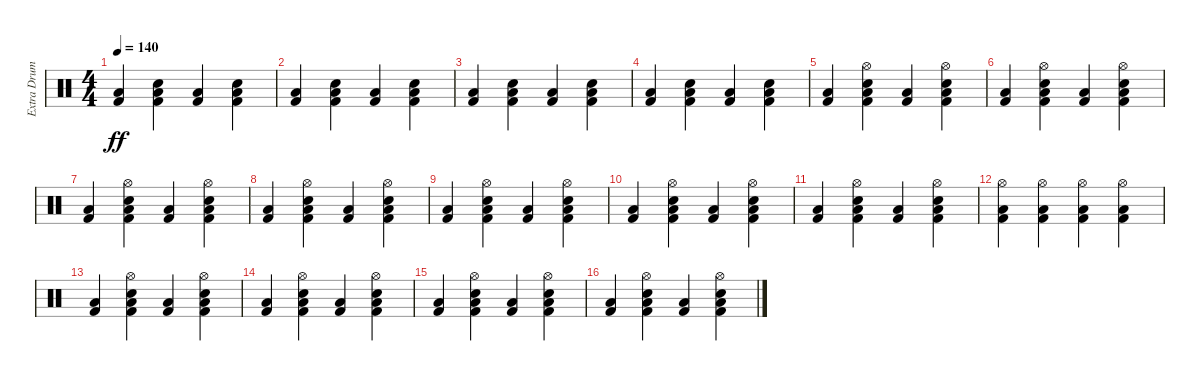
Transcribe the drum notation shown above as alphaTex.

\track ("Extra Drums" "Extra Drum") {instrument percussion}
\staff {score}
\articulation defaults
\ts (4 4)
\tempo 140
\clef neutral
\ks c
("Low Floor Tom (hit)" "Kick (hit) 2").4{dy ff} ("Electric Snare (hit)" "Low Floor Tom (hit)" "Kick (hit) 2").4 ("Low Floor Tom (hit)" "Kick (hit) 2").4 ("Electric Snare (hit)" "Low Floor Tom (hit)" "Kick (hit) 2").4 |
("Low Floor Tom (hit)" "Kick (hit) 2").4 ("Electric Snare (hit)" "Low Floor Tom (hit)" "Kick (hit) 2").4 ("Low Floor Tom (hit)" "Kick (hit) 2").4 ("Electric Snare (hit)" "Low Floor Tom (hit)" "Kick (hit) 2").4 |
("Low Floor Tom (hit)" "Kick (hit) 2").4 ("Electric Snare (hit)" "Low Floor Tom (hit)" "Kick (hit) 2").4 ("Low Floor Tom (hit)" "Kick (hit) 2").4 ("Electric Snare (hit)" "Low Floor Tom (hit)" "Kick (hit) 2").4 |
("Low Floor Tom (hit)" "Kick (hit) 2").4 ("Electric Snare (hit)" "Low Floor Tom (hit)" "Kick (hit) 2").4 ("Low Floor Tom (hit)" "Kick (hit) 2").4 ("Electric Snare (hit)" "Low Floor Tom (hit)" "Kick (hit) 2").4 |
("Low Floor Tom (hit)" "Kick (hit) 2").4 ("Hi-Hat (open)" "Electric Snare (hit)" "Low Floor Tom (hit)" "Kick (hit) 2").4 ("Low Floor Tom (hit)" "Kick (hit) 2").4 ("Hi-Hat (open)" "Electric Snare (hit)" "Low Floor Tom (hit)" "Kick (hit) 2").4 |
("Low Floor Tom (hit)" "Kick (hit) 2").4 ("Hi-Hat (open)" "Electric Snare (hit)" "Low Floor Tom (hit)" "Kick (hit) 2").4 ("Low Floor Tom (hit)" "Kick (hit) 2").4 ("Hi-Hat (open)" "Electric Snare (hit)" "Low Floor Tom (hit)" "Kick (hit) 2").4 |
("Low Floor Tom (hit)" "Kick (hit) 2").4 ("Hi-Hat (open)" "Electric Snare (hit)" "Low Floor Tom (hit)" "Kick (hit) 2").4 ("Low Floor Tom (hit)" "Kick (hit) 2").4 ("Hi-Hat (open)" "Electric Snare (hit)" "Low Floor Tom (hit)" "Kick (hit) 2").4 |
("Low Floor Tom (hit)" "Kick (hit) 2").4 ("Hi-Hat (open)" "Electric Snare (hit)" "Low Floor Tom (hit)" "Kick (hit) 2").4 ("Low Floor Tom (hit)" "Kick (hit) 2").4 ("Hi-Hat (open)" "Electric Snare (hit)" "Low Floor Tom (hit)" "Kick (hit) 2").4 |
("Low Floor Tom (hit)" "Kick (hit) 2").4 ("Hi-Hat (open)" "Electric Snare (hit)" "Low Floor Tom (hit)" "Kick (hit) 2").4 ("Low Floor Tom (hit)" "Kick (hit) 2").4 ("Hi-Hat (open)" "Electric Snare (hit)" "Low Floor Tom (hit)" "Kick (hit) 2").4 |
("Low Floor Tom (hit)" "Kick (hit) 2").4 ("Hi-Hat (open)" "Electric Snare (hit)" "Low Floor Tom (hit)" "Kick (hit) 2").4 ("Low Floor Tom (hit)" "Kick (hit) 2").4 ("Hi-Hat (open)" "Electric Snare (hit)" "Low Floor Tom (hit)" "Kick (hit) 2").4 |
("Low Floor Tom (hit)" "Kick (hit) 2").4 ("Hi-Hat (open)" "Electric Snare (hit)" "Low Floor Tom (hit)" "Kick (hit) 2").4 ("Low Floor Tom (hit)" "Kick (hit) 2").4 ("Hi-Hat (open)" "Electric Snare (hit)" "Low Floor Tom (hit)" "Kick (hit) 2").4 |
("Hi-Hat (open)" "Low Floor Tom (hit)" "Kick (hit) 2").4 ("Hi-Hat (open)" "Low Floor Tom (hit)" "Kick (hit) 2").4 ("Hi-Hat (open)" "Low Floor Tom (hit)" "Kick (hit) 2").4 ("Hi-Hat (open)" "Low Floor Tom (hit)" "Kick (hit) 2").4 |
("Low Floor Tom (hit)" "Kick (hit) 2").4 ("Hi-Hat (open)" "Electric Snare (hit)" "Low Floor Tom (hit)" "Kick (hit) 2").4 ("Low Floor Tom (hit)" "Kick (hit) 2").4 ("Hi-Hat (open)" "Electric Snare (hit)" "Low Floor Tom (hit)" "Kick (hit) 2").4 |
("Low Floor Tom (hit)" "Kick (hit) 2").4 ("Hi-Hat (open)" "Electric Snare (hit)" "Low Floor Tom (hit)" "Kick (hit) 2").4 ("Low Floor Tom (hit)" "Kick (hit) 2").4 ("Hi-Hat (open)" "Electric Snare (hit)" "Low Floor Tom (hit)" "Kick (hit) 2").4 |
("Low Floor Tom (hit)" "Kick (hit) 2").4 ("Hi-Hat (open)" "Electric Snare (hit)" "Low Floor Tom (hit)" "Kick (hit) 2").4 ("Low Floor Tom (hit)" "Kick (hit) 2").4 ("Hi-Hat (open)" "Electric Snare (hit)" "Low Floor Tom (hit)" "Kick (hit) 2").4 |
("Low Floor Tom (hit)" "Kick (hit) 2").4 ("Hi-Hat (open)" "Electric Snare (hit)" "Low Floor Tom (hit)" "Kick (hit) 2").4 ("Low Floor Tom (hit)" "Kick (hit) 2").4 ("Hi-Hat (open)" "Electric Snare (hit)" "Low Floor Tom (hit)" "Kick (hit) 2").4
